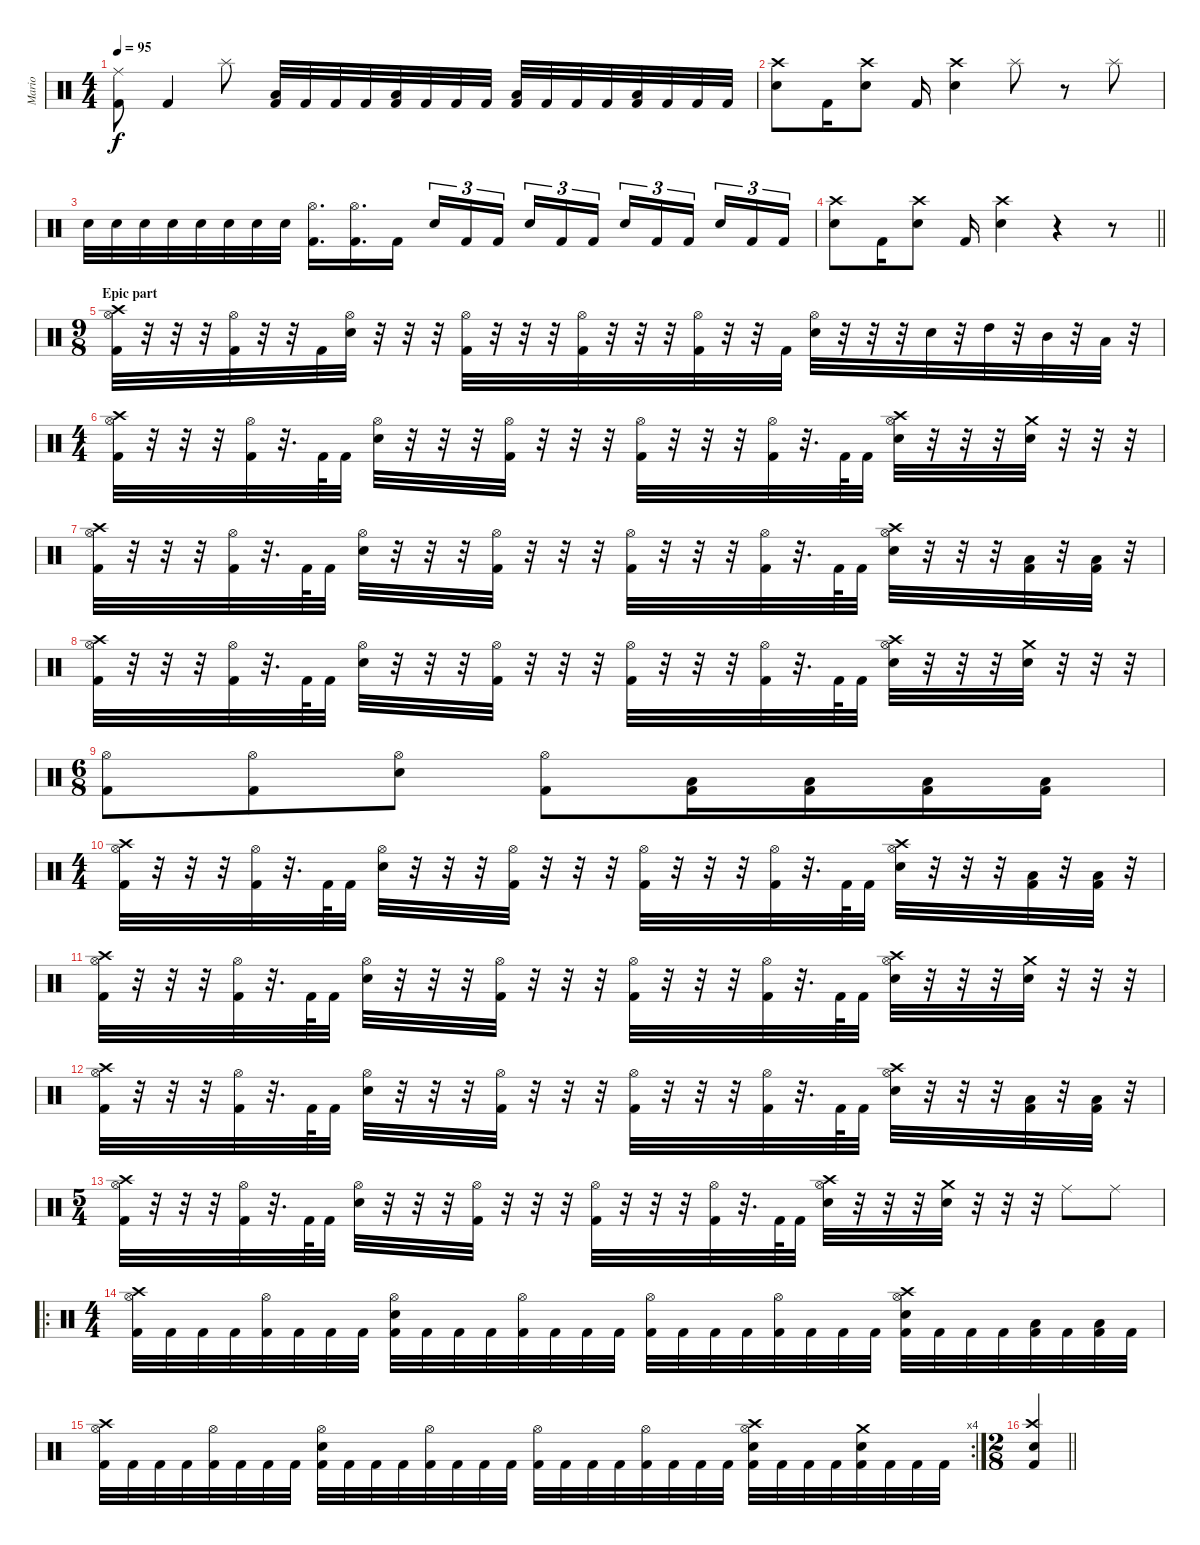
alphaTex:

\track ("Mario" "Mario") {instrument percussion}
\staff {score}
\articulation defaults
\ts (4 4)
\tempo 95
\clef neutral
\ks c
("Ride (middle)" "Kick (hit) 2").8{dy f} "Kick (hit) 2".4 "Splash (hit)".8 ("Low Tom (hit)" "Kick (hit) 2").32 "Kick (hit) 2".32 "Kick (hit) 2".32 "Kick (hit) 2".32 ("Low Tom (hit)" "Kick (hit) 2").32 "Kick (hit) 2".32 "Kick (hit) 2".32 "Kick (hit) 2".32 ("Low Tom (hit)" "Kick (hit) 2").32 "Kick (hit) 2".32 "Kick (hit) 2".32 "Kick (hit) 2".32 ("Low Tom (hit)" "Kick (hit) 2").32 "Kick (hit) 2".32 "Kick (hit) 2".32 "Kick (hit) 2".32 |
("Crash high (hit)" "Electric Snare (hit)").8 "Kick (hit) 2".16 ("Crash high (hit)" "Electric Snare (hit)").8 "Kick (hit) 2".16 ("Crash high (hit)" "Electric Snare (hit)").4 "Splash (hit)".8 r.8 "Splash (hit)".8 |
"Electric Snare (hit)".32 "Electric Snare (hit)".32 "Electric Snare (hit)".32 "Electric Snare (hit)".32 "Electric Snare (hit)".32 "Electric Snare (hit)".32 "Electric Snare (hit)".32 "Electric Snare (hit)".32 ("Hi-Hat (open)" "Kick (hit) 2").16{d} ("Hi-Hat (open)" "Kick (hit) 2").16{d} "Kick (hit) 2".16 "Electric Snare (hit)".16{tu (3 2)} "Kick (hit) 2".16{tu (3 2)} "Kick (hit) 2".16{tu (3 2) beam splitsecondary} "Electric Snare (hit)".16{tu (3 2)} "Kick (hit) 2".16{tu (3 2)} "Kick (hit) 2".16{tu (3 2)} "Electric Snare (hit)".16{tu (3 2)} "Kick (hit) 2".16{tu (3 2)} "Kick (hit) 2".16{tu (3 2) beam splitsecondary} "Electric Snare (hit)".16{tu (3 2)} "Kick (hit) 2".16{tu (3 2)} "Kick (hit) 2".16{tu (3 2)} |
\barLineRight lightlight
("Crash high (hit)" "Electric Snare (hit)").8 "Kick (hit) 2".16 ("Crash high (hit)" "Electric Snare (hit)").8 "Kick (hit) 2".16 ("Crash high (hit)" "Electric Snare (hit)").4 r.4 r.8 |
\ts (9 8)
\section ("" "Epic part")
("Crash high (hit)" "Hi-Hat (open)" "Kick (hit) 2").32 r.32 r.32 r.32 ("Hi-Hat (open)" "Kick (hit) 2").32 r.32 r.32 "Kick (hit) 2".32 ("Hi-Hat (open)" "Electric Snare (hit)").32 r.32 r.32 r.32 ("Hi-Hat (open)" "Kick (hit) 2").32 r.32 r.32 r.32 ("Hi-Hat (open)" "Kick (hit) 2").32 r.32 r.32 r.32 ("Hi-Hat (open)" "Kick (hit) 2").32 r.32 r.32 "Kick (hit) 2".32 ("Hi-Hat (open)" "Electric Snare (hit)").32 r.32 r.32 r.32 "Electric Snare (hit)".32 r.32 "High Tom (hit)".32 r.32 "Mid Tom (hit)".32 r.32 "Low Tom (hit)".32 r.32 |
\ts (4 4)
("Crash high (hit)" "Hi-Hat (open)" "Kick (hit) 2").32 r.32 r.32 r.32 ("Hi-Hat (open)" "Kick (hit) 2").32 r.32{d} "Kick (hit) 2".64 "Kick (hit) 2".32 ("Hi-Hat (open)" "Electric Snare (hit)").32 r.32 r.32 r.32 ("Hi-Hat (open)" "Kick (hit) 2").32 r.32 r.32 r.32 ("Hi-Hat (open)" "Kick (hit) 2").32 r.32 r.32 r.32 ("Hi-Hat (open)" "Kick (hit) 2").32 r.32{d} "Kick (hit) 2".64 "Kick (hit) 2".32 ("Crash high (hit)" "Hi-Hat (open)" "Electric Snare (hit)").32 r.32 r.32 r.32 ("Crash medium (hit)" "Electric Snare (hit)").32 r.32 r.32 r.32 |
("Crash high (hit)" "Hi-Hat (open)" "Kick (hit) 2").32 r.32 r.32 r.32 ("Hi-Hat (open)" "Kick (hit) 2").32 r.32{d} "Kick (hit) 2".64 "Kick (hit) 2".32 ("Hi-Hat (open)" "Electric Snare (hit)").32 r.32 r.32 r.32 ("Hi-Hat (open)" "Kick (hit) 2").32 r.32 r.32 r.32 ("Hi-Hat (open)" "Kick (hit) 2").32 r.32 r.32 r.32 ("Hi-Hat (open)" "Kick (hit) 2").32 r.32{d} "Kick (hit) 2".64 "Kick (hit) 2".32 ("Crash high (hit)" "Hi-Hat (open)" "Electric Snare (hit)").32 r.32 r.32 r.32 ("Low Tom (hit)" "Kick (hit) 2").32 r.32 ("Low Tom (hit)" "Kick (hit) 2").32 r.32 |
("Crash high (hit)" "Hi-Hat (open)" "Kick (hit) 2").32 r.32 r.32 r.32 ("Hi-Hat (open)" "Kick (hit) 2").32 r.32{d} "Kick (hit) 2".64 "Kick (hit) 2".32 ("Hi-Hat (open)" "Electric Snare (hit)").32 r.32 r.32 r.32 ("Hi-Hat (open)" "Kick (hit) 2").32 r.32 r.32 r.32 ("Hi-Hat (open)" "Kick (hit) 2").32 r.32 r.32 r.32 ("Hi-Hat (open)" "Kick (hit) 2").32 r.32{d} "Kick (hit) 2".64 "Kick (hit) 2".32 ("Crash high (hit)" "Hi-Hat (open)" "Electric Snare (hit)").32 r.32 r.32 r.32 ("Crash medium (hit)" "Electric Snare (hit)").32 r.32 r.32 r.32 |
\ts (6 8)
("Hi-Hat (open)" "Kick (hit) 2").8 ("Hi-Hat (open)" "Kick (hit) 2").8 ("Hi-Hat (open)" "Electric Snare (hit)").8 ("Hi-Hat (open)" "Kick (hit) 2").8 ("Low Tom (hit)" "Kick (hit) 2").16 ("Low Tom (hit)" "Kick (hit) 2").16 ("Low Tom (hit)" "Kick (hit) 2").16 ("Low Tom (hit)" "Kick (hit) 2").16 |
\ts (4 4)
("Crash high (hit)" "Hi-Hat (open)" "Kick (hit) 2").32 r.32 r.32 r.32 ("Hi-Hat (open)" "Kick (hit) 2").32 r.32{d} "Kick (hit) 2".64 "Kick (hit) 2".32 ("Hi-Hat (open)" "Electric Snare (hit)").32 r.32 r.32 r.32 ("Hi-Hat (open)" "Kick (hit) 2").32 r.32 r.32 r.32 ("Hi-Hat (open)" "Kick (hit) 2").32 r.32 r.32 r.32 ("Hi-Hat (open)" "Kick (hit) 2").32 r.32{d} "Kick (hit) 2".64 "Kick (hit) 2".32 ("Crash high (hit)" "Hi-Hat (open)" "Electric Snare (hit)").32 r.32 r.32 r.32 ("Low Tom (hit)" "Kick (hit) 2").32 r.32 ("Low Tom (hit)" "Kick (hit) 2").32 r.32 |
("Crash high (hit)" "Hi-Hat (open)" "Kick (hit) 2").32 r.32 r.32 r.32 ("Hi-Hat (open)" "Kick (hit) 2").32 r.32{d} "Kick (hit) 2".64 "Kick (hit) 2".32 ("Hi-Hat (open)" "Electric Snare (hit)").32 r.32 r.32 r.32 ("Hi-Hat (open)" "Kick (hit) 2").32 r.32 r.32 r.32 ("Hi-Hat (open)" "Kick (hit) 2").32 r.32 r.32 r.32 ("Hi-Hat (open)" "Kick (hit) 2").32 r.32{d} "Kick (hit) 2".64 "Kick (hit) 2".32 ("Crash high (hit)" "Hi-Hat (open)" "Electric Snare (hit)").32 r.32 r.32 r.32 ("Crash medium (hit)" "Electric Snare (hit)").32 r.32 r.32 r.32 |
("Crash high (hit)" "Hi-Hat (open)" "Kick (hit) 2").32 r.32 r.32 r.32 ("Hi-Hat (open)" "Kick (hit) 2").32 r.32{d} "Kick (hit) 2".64 "Kick (hit) 2".32 ("Hi-Hat (open)" "Electric Snare (hit)").32 r.32 r.32 r.32 ("Hi-Hat (open)" "Kick (hit) 2").32 r.32 r.32 r.32 ("Hi-Hat (open)" "Kick (hit) 2").32 r.32 r.32 r.32 ("Hi-Hat (open)" "Kick (hit) 2").32 r.32{d} "Kick (hit) 2".64 "Kick (hit) 2".32 ("Crash high (hit)" "Hi-Hat (open)" "Electric Snare (hit)").32 r.32 r.32 r.32 ("Low Tom (hit)" "Kick (hit) 2").32 r.32 ("Low Tom (hit)" "Kick (hit) 2").32 r.32 |
\ts (5 4)
("Crash high (hit)" "Hi-Hat (open)" "Kick (hit) 2").32 r.32 r.32 r.32 ("Hi-Hat (open)" "Kick (hit) 2").32 r.32{d} "Kick (hit) 2".64 "Kick (hit) 2".32 ("Hi-Hat (open)" "Electric Snare (hit)").32 r.32 r.32 r.32 ("Hi-Hat (open)" "Kick (hit) 2").32 r.32 r.32 r.32 ("Hi-Hat (open)" "Kick (hit) 2").32 r.32 r.32 r.32 ("Hi-Hat (open)" "Kick (hit) 2").32 r.32{d} "Kick (hit) 2".64 "Kick (hit) 2".32 ("Crash high (hit)" "Hi-Hat (open)" "Electric Snare (hit)").32 r.32 r.32 r.32 ("Crash medium (hit)" "Electric Snare (hit)").32 r.32 r.32 r.32 "Ride (middle)".8 "Ride (middle)".8 |
\ro
\ts (4 4)
("Crash high (hit)" "Hi-Hat (open)" "Kick (hit) 2").32 "Kick (hit) 2".32 "Kick (hit) 2".32 "Kick (hit) 2".32 ("Hi-Hat (open)" "Kick (hit) 2").32 "Kick (hit) 2".32 "Kick (hit) 2".32 "Kick (hit) 2".32 ("Hi-Hat (open)" "Electric Snare (hit)" "Kick (hit) 2").32 "Kick (hit) 2".32 "Kick (hit) 2".32 "Kick (hit) 2".32 ("Hi-Hat (open)" "Kick (hit) 2").32 "Kick (hit) 2".32 "Kick (hit) 2".32 "Kick (hit) 2".32 ("Hi-Hat (open)" "Kick (hit) 2").32 "Kick (hit) 2".32 "Kick (hit) 2".32 "Kick (hit) 2".32 ("Hi-Hat (open)" "Kick (hit) 2").32 "Kick (hit) 2".32 "Kick (hit) 2".32 "Kick (hit) 2".32 ("Crash high (hit)" "Hi-Hat (open)" "Electric Snare (hit)" "Kick (hit) 2").32 "Kick (hit) 2".32 "Kick (hit) 2".32 "Kick (hit) 2".32 ("Low Tom (hit)" "Kick (hit) 2").32 "Kick (hit) 2".32 ("Low Tom (hit)" "Kick (hit) 2").32 "Kick (hit) 2".32 |
\rc 4
("Crash high (hit)" "Hi-Hat (open)" "Kick (hit) 2").32 "Kick (hit) 2".32 "Kick (hit) 2".32 "Kick (hit) 2".32 ("Hi-Hat (open)" "Kick (hit) 2").32 "Kick (hit) 2".32 "Kick (hit) 2".32 "Kick (hit) 2".32 ("Hi-Hat (open)" "Electric Snare (hit)" "Kick (hit) 2").32 "Kick (hit) 2".32 "Kick (hit) 2".32 "Kick (hit) 2".32 ("Hi-Hat (open)" "Kick (hit) 2").32 "Kick (hit) 2".32 "Kick (hit) 2".32 "Kick (hit) 2".32 ("Hi-Hat (open)" "Kick (hit) 2").32 "Kick (hit) 2".32 "Kick (hit) 2".32 "Kick (hit) 2".32 ("Hi-Hat (open)" "Kick (hit) 2").32 "Kick (hit) 2".32 "Kick (hit) 2".32 "Kick (hit) 2".32 ("Crash high (hit)" "Hi-Hat (open)" "Electric Snare (hit)" "Kick (hit) 2").32 "Kick (hit) 2".32 "Kick (hit) 2".32 "Kick (hit) 2".32 ("Crash medium (hit)" "Electric Snare (hit)" "Kick (hit) 2").32 "Kick (hit) 2".32 "Kick (hit) 2".32 "Kick (hit) 2".32 |
\ts (2 8)
\barLineRight lightlight
("Crash high (hit)" "Electric Snare (hit)" "Kick (hit) 2").4
